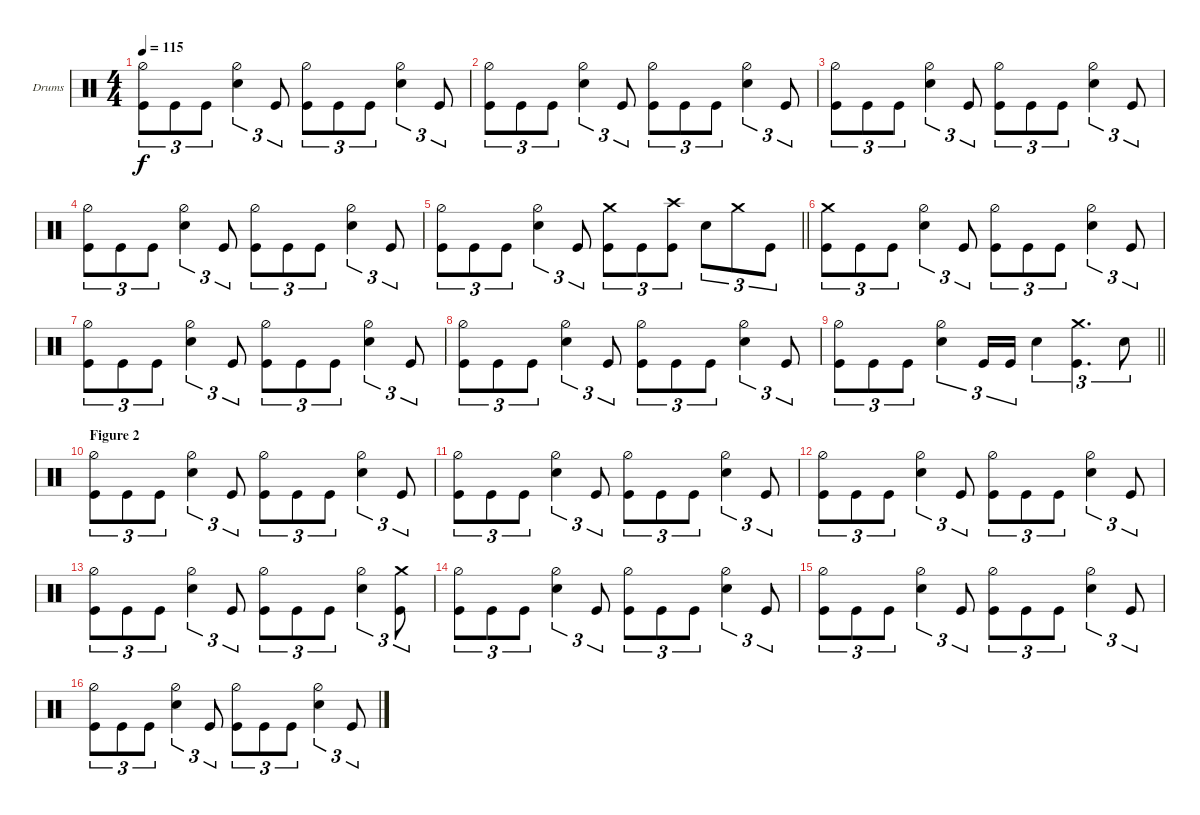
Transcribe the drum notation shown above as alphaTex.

\defaultSystemsLayout 4
\bracketExtendMode groupsimilarinstruments
\firstSystemTrackNameOrientation horizontal
\otherSystemsTrackNameOrientation horizontal
\track ("Drums" "Drums") {instrument percussion}
\staff {score}
\articulation defaults
\ts (4 4)
\tempo 115
\clef neutral
\ks aminor
("Kick (hit)" "Hi-Hat (half)").8{tu (3 2) dy f} "Kick (hit)".8{tu (3 2)} "Kick (hit)".8{tu (3 2)} ("Snare (hit) 2" "Hi-Hat (half)").4{tu (3 2)} "Kick (hit)".8{tu (3 2)} ("Kick (hit)" "Hi-Hat (half)").8{tu (3 2)} "Kick (hit)".8{tu (3 2)} "Kick (hit)".8{tu (3 2)} ("Snare (hit) 2" "Hi-Hat (half)").4{tu (3 2)} "Kick (hit)".8{tu (3 2)} |
("Kick (hit)" "Hi-Hat (half)").8{tu (3 2)} "Kick (hit)".8{tu (3 2)} "Kick (hit)".8{tu (3 2)} ("Snare (hit) 2" "Hi-Hat (half)").4{tu (3 2)} "Kick (hit)".8{tu (3 2)} ("Kick (hit)" "Hi-Hat (half)").8{tu (3 2)} "Kick (hit)".8{tu (3 2)} "Kick (hit)".8{tu (3 2)} ("Snare (hit) 2" "Hi-Hat (half)").4{tu (3 2)} "Kick (hit)".8{tu (3 2)} |
("Kick (hit)" "Hi-Hat (half)").8{tu (3 2)} "Kick (hit)".8{tu (3 2)} "Kick (hit)".8{tu (3 2)} ("Snare (hit) 2" "Hi-Hat (half)").4{tu (3 2)} "Kick (hit)".8{tu (3 2)} ("Kick (hit)" "Hi-Hat (half)").8{tu (3 2)} "Kick (hit)".8{tu (3 2)} "Kick (hit)".8{tu (3 2)} ("Snare (hit) 2" "Hi-Hat (half)").4{tu (3 2)} "Kick (hit)".8{tu (3 2)} |
("Kick (hit)" "Hi-Hat (half)").8{tu (3 2)} "Kick (hit)".8{tu (3 2)} "Kick (hit)".8{tu (3 2)} ("Snare (hit) 2" "Hi-Hat (half)").4{tu (3 2)} "Kick (hit)".8{tu (3 2)} ("Kick (hit)" "Hi-Hat (half)").8{tu (3 2)} "Kick (hit)".8{tu (3 2)} "Kick (hit)".8{tu (3 2)} ("Snare (hit) 2" "Hi-Hat (half)").4{tu (3 2)} "Kick (hit)".8{tu (3 2)} |
\barLineRight lightlight
("Kick (hit)" "Hi-Hat (half)").8{tu (3 2)} "Kick (hit)".8{tu (3 2)} "Kick (hit)".8{tu (3 2)} ("Snare (hit) 2" "Hi-Hat (half)").4{tu (3 2)} "Kick (hit)".8{tu (3 2)} ("Kick (hit)" "Crash medium (hit)").8{tu (3 2)} "Kick (hit)".8{tu (3 2)} ("Kick (hit)" "Crash high (hit)").8{tu (3 2)} "Snare (hit) 2".8{tu (3 2)} "Crash medium (hit)".8{tu (3 2)} "Kick (hit)".8{tu (3 2)} |
("Kick (hit)" "Crash medium (hit)").8{tu (3 2)} "Kick (hit)".8{tu (3 2)} "Kick (hit)".8{tu (3 2)} ("Snare (hit) 2" "Hi-Hat (half)").4{tu (3 2)} "Kick (hit)".8{tu (3 2)} ("Kick (hit)" "Hi-Hat (half)").8{tu (3 2)} "Kick (hit)".8{tu (3 2)} "Kick (hit)".8{tu (3 2)} ("Snare (hit) 2" "Hi-Hat (half)").4{tu (3 2)} "Kick (hit)".8{tu (3 2)} |
("Kick (hit)" "Hi-Hat (half)").8{tu (3 2)} "Kick (hit)".8{tu (3 2)} "Kick (hit)".8{tu (3 2)} ("Snare (hit) 2" "Hi-Hat (half)").4{tu (3 2)} "Kick (hit)".8{tu (3 2)} ("Kick (hit)" "Hi-Hat (half)").8{tu (3 2)} "Kick (hit)".8{tu (3 2)} "Kick (hit)".8{tu (3 2)} ("Snare (hit) 2" "Hi-Hat (half)").4{tu (3 2)} "Kick (hit)".8{tu (3 2)} |
("Kick (hit)" "Hi-Hat (half)").8{tu (3 2)} "Kick (hit)".8{tu (3 2)} "Kick (hit)".8{tu (3 2)} ("Snare (hit) 2" "Hi-Hat (half)").4{tu (3 2)} "Kick (hit)".8{tu (3 2)} ("Kick (hit)" "Hi-Hat (half)").8{tu (3 2)} "Kick (hit)".8{tu (3 2)} "Kick (hit)".8{tu (3 2)} ("Snare (hit) 2" "Hi-Hat (half)").4{tu (3 2)} "Kick (hit)".8{tu (3 2)} |
\barLineRight lightlight
("Kick (hit)" "Hi-Hat (half)").8{tu (3 2)} "Kick (hit)".8{tu (3 2)} "Kick (hit)".8{tu (3 2)} ("Snare (hit) 2" "Hi-Hat (half)").4{tu (3 2)} "Kick (hit)".16{tu (3 2)} "Kick (hit)".16{tu (3 2)} "Snare (hit) 2".4{tu (3 2)} ("Crash medium (hit)" "Kick (hit)").4{d tu (3 2)} "Snare (hit) 2".8{tu (3 2)} |
\section ("" "Figure 2")
("Kick (hit)" "Hi-Hat (half)").8{tu (3 2)} "Kick (hit)".8{tu (3 2)} "Kick (hit)".8{tu (3 2)} ("Snare (hit) 2" "Hi-Hat (half)").4{tu (3 2)} "Kick (hit)".8{tu (3 2)} ("Kick (hit)" "Hi-Hat (half)").8{tu (3 2)} "Kick (hit)".8{tu (3 2)} "Kick (hit)".8{tu (3 2)} ("Snare (hit) 2" "Hi-Hat (half)").4{tu (3 2)} "Kick (hit)".8{tu (3 2)} |
("Kick (hit)" "Hi-Hat (half)").8{tu (3 2)} "Kick (hit)".8{tu (3 2)} "Kick (hit)".8{tu (3 2)} ("Snare (hit) 2" "Hi-Hat (half)").4{tu (3 2)} "Kick (hit)".8{tu (3 2)} ("Kick (hit)" "Hi-Hat (half)").8{tu (3 2)} "Kick (hit)".8{tu (3 2)} "Kick (hit)".8{tu (3 2)} ("Snare (hit) 2" "Hi-Hat (half)").4{tu (3 2)} "Kick (hit)".8{tu (3 2)} |
("Kick (hit)" "Hi-Hat (half)").8{tu (3 2)} "Kick (hit)".8{tu (3 2)} "Kick (hit)".8{tu (3 2)} ("Snare (hit) 2" "Hi-Hat (half)").4{tu (3 2)} "Kick (hit)".8{tu (3 2)} ("Kick (hit)" "Hi-Hat (half)").8{tu (3 2)} "Kick (hit)".8{tu (3 2)} "Kick (hit)".8{tu (3 2)} ("Snare (hit) 2" "Hi-Hat (half)").4{tu (3 2)} "Kick (hit)".8{tu (3 2)} |
("Kick (hit)" "Hi-Hat (half)").8{tu (3 2)} "Kick (hit)".8{tu (3 2)} "Kick (hit)".8{tu (3 2)} ("Snare (hit) 2" "Hi-Hat (half)").4{tu (3 2)} "Kick (hit)".8{tu (3 2)} ("Kick (hit)" "Hi-Hat (half)").8{tu (3 2)} "Kick (hit)".8{tu (3 2)} "Kick (hit)".8{tu (3 2)} ("Snare (hit) 2" "Hi-Hat (half)").4{tu (3 2)} ("Kick (hit)" "Crash medium (hit)").8{tu (3 2)} |
("Kick (hit)" "Hi-Hat (half)").8{tu (3 2)} "Kick (hit)".8{tu (3 2)} "Kick (hit)".8{tu (3 2)} ("Snare (hit) 2" "Hi-Hat (half)").4{tu (3 2)} "Kick (hit)".8{tu (3 2)} ("Kick (hit)" "Hi-Hat (half)").8{tu (3 2)} "Kick (hit)".8{tu (3 2)} "Kick (hit)".8{tu (3 2)} ("Snare (hit) 2" "Hi-Hat (half)").4{tu (3 2)} "Kick (hit)".8{tu (3 2)} |
("Kick (hit)" "Hi-Hat (half)").8{tu (3 2)} "Kick (hit)".8{tu (3 2)} "Kick (hit)".8{tu (3 2)} ("Snare (hit) 2" "Hi-Hat (half)").4{tu (3 2)} "Kick (hit)".8{tu (3 2)} ("Kick (hit)" "Hi-Hat (half)").8{tu (3 2)} "Kick (hit)".8{tu (3 2)} "Kick (hit)".8{tu (3 2)} ("Snare (hit) 2" "Hi-Hat (half)").4{tu (3 2)} "Kick (hit)".8{tu (3 2)} |
("Kick (hit)" "Hi-Hat (half)").8{tu (3 2)} "Kick (hit)".8{tu (3 2)} "Kick (hit)".8{tu (3 2)} ("Snare (hit) 2" "Hi-Hat (half)").4{tu (3 2)} "Kick (hit)".8{tu (3 2)} ("Kick (hit)" "Hi-Hat (half)").8{tu (3 2)} "Kick (hit)".8{tu (3 2)} "Kick (hit)".8{tu (3 2)} ("Snare (hit) 2" "Hi-Hat (half)").4{tu (3 2)} "Kick (hit)".8{tu (3 2)}
